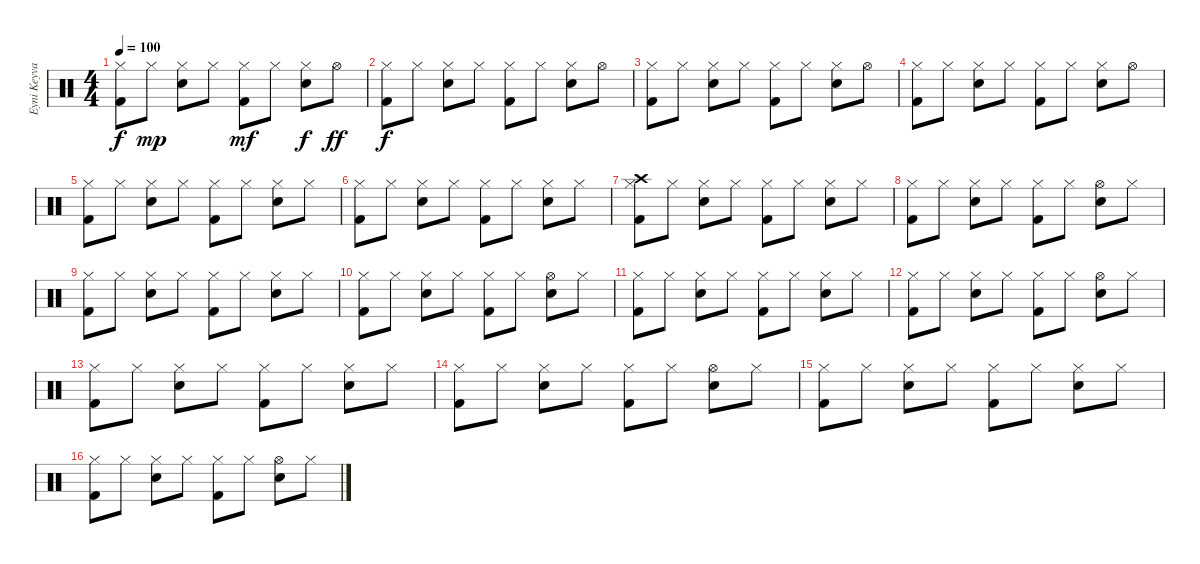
\track ("Eyni Keyvanshokoh" "Eyni Keyva") {instrument percussion}
\staff {score}
\articulation defaults
\ts (4 4)
\tempo 100
\clef neutral
\ks c
("Hi-Hat (closed)" "Kick (hit) 2").8{dy f} "Hi-Hat (closed)".8{dy mp} ("Hi-Hat (closed)" "Electric Snare (hit)").8 "Hi-Hat (closed)".8 ("Hi-Hat (closed)" "Kick (hit) 2").8{dy mf} "Hi-Hat (closed)".8 ("Hi-Hat (closed)" "Electric Snare (hit)").8{dy f} "Hi-Hat (open)".8{dy ff} |
("Hi-Hat (closed)" "Kick (hit) 2").8{dy f} "Hi-Hat (closed)".8 ("Hi-Hat (closed)" "Electric Snare (hit)").8 "Hi-Hat (closed)".8 ("Hi-Hat (closed)" "Kick (hit) 2").8 "Hi-Hat (closed)".8 ("Hi-Hat (closed)" "Electric Snare (hit)").8 "Hi-Hat (open)".8 |
("Hi-Hat (closed)" "Kick (hit) 2").8 "Hi-Hat (closed)".8 ("Hi-Hat (closed)" "Electric Snare (hit)").8 "Hi-Hat (closed)".8 ("Hi-Hat (closed)" "Kick (hit) 2").8 "Hi-Hat (closed)".8 ("Hi-Hat (closed)" "Electric Snare (hit)").8 "Hi-Hat (open)".8 |
("Hi-Hat (closed)" "Kick (hit) 2").8 "Hi-Hat (closed)".8 ("Hi-Hat (closed)" "Electric Snare (hit)").8 "Hi-Hat (closed)".8 ("Hi-Hat (closed)" "Kick (hit) 2").8 "Hi-Hat (closed)".8 ("Hi-Hat (closed)" "Electric Snare (hit)").8 "Hi-Hat (open)".8 |
("Hi-Hat (closed)" "Kick (hit) 2").8 "Hi-Hat (closed)".8 ("Hi-Hat (closed)" "Electric Snare (hit)").8 "Hi-Hat (closed)".8 ("Hi-Hat (closed)" "Kick (hit) 2").8 "Hi-Hat (closed)".8 ("Hi-Hat (closed)" "Electric Snare (hit)").8 "Hi-Hat (closed)".8 |
("Hi-Hat (closed)" "Kick (hit) 2").8 "Hi-Hat (closed)".8 ("Hi-Hat (closed)" "Electric Snare (hit)").8 "Hi-Hat (closed)".8 ("Hi-Hat (closed)" "Kick (hit) 2").8 "Hi-Hat (closed)".8 ("Hi-Hat (closed)" "Electric Snare (hit)").8 "Hi-Hat (closed)".8 |
("Crash high (hit)" "Hi-Hat (closed)" "Kick (hit) 2").8 "Hi-Hat (closed)".8 ("Hi-Hat (closed)" "Electric Snare (hit)").8 "Hi-Hat (closed)".8 ("Hi-Hat (closed)" "Kick (hit) 2").8 "Hi-Hat (closed)".8 ("Hi-Hat (closed)" "Electric Snare (hit)").8 "Hi-Hat (closed)".8 |
("Hi-Hat (closed)" "Kick (hit) 2").8 "Hi-Hat (closed)".8 ("Hi-Hat (closed)" "Electric Snare (hit)").8 "Hi-Hat (closed)".8 ("Hi-Hat (closed)" "Kick (hit) 2").8 "Hi-Hat (closed)".8 ("Hi-Hat (open)" "Electric Snare (hit)").8 "Hi-Hat (closed)".8 |
("Hi-Hat (closed)" "Kick (hit) 2").8 "Hi-Hat (closed)".8 ("Hi-Hat (closed)" "Electric Snare (hit)").8 "Hi-Hat (closed)".8 ("Hi-Hat (closed)" "Kick (hit) 2").8 "Hi-Hat (closed)".8 ("Hi-Hat (closed)" "Electric Snare (hit)").8 "Hi-Hat (closed)".8 |
("Hi-Hat (closed)" "Kick (hit) 2").8 "Hi-Hat (closed)".8 ("Hi-Hat (closed)" "Electric Snare (hit)").8 "Hi-Hat (closed)".8 ("Hi-Hat (closed)" "Kick (hit) 2").8 "Hi-Hat (closed)".8 ("Hi-Hat (open)" "Electric Snare (hit)").8 "Hi-Hat (closed)".8 |
("Hi-Hat (closed)" "Kick (hit) 2").8 "Hi-Hat (closed)".8 ("Hi-Hat (closed)" "Electric Snare (hit)").8 "Hi-Hat (closed)".8 ("Hi-Hat (closed)" "Kick (hit) 2").8 "Hi-Hat (closed)".8 ("Hi-Hat (closed)" "Electric Snare (hit)").8 "Hi-Hat (closed)".8 |
("Hi-Hat (closed)" "Kick (hit) 2").8 "Hi-Hat (closed)".8 ("Hi-Hat (closed)" "Electric Snare (hit)").8 "Hi-Hat (closed)".8 ("Hi-Hat (closed)" "Kick (hit) 2").8 "Hi-Hat (closed)".8 ("Hi-Hat (open)" "Electric Snare (hit)").8 "Hi-Hat (closed)".8 |
("Hi-Hat (closed)" "Kick (hit) 2").8 "Hi-Hat (closed)".8 ("Hi-Hat (closed)" "Electric Snare (hit)").8 "Hi-Hat (closed)".8 ("Hi-Hat (closed)" "Kick (hit) 2").8 "Hi-Hat (closed)".8 ("Hi-Hat (closed)" "Electric Snare (hit)").8 "Hi-Hat (closed)".8 |
("Hi-Hat (closed)" "Kick (hit) 2").8 "Hi-Hat (closed)".8 ("Hi-Hat (closed)" "Electric Snare (hit)").8 "Hi-Hat (closed)".8 ("Hi-Hat (closed)" "Kick (hit) 2").8 "Hi-Hat (closed)".8 ("Hi-Hat (open)" "Electric Snare (hit)").8 "Hi-Hat (closed)".8 |
("Hi-Hat (closed)" "Kick (hit) 2").8 "Hi-Hat (closed)".8 ("Hi-Hat (closed)" "Electric Snare (hit)").8 "Hi-Hat (closed)".8 ("Hi-Hat (closed)" "Kick (hit) 2").8 "Hi-Hat (closed)".8 ("Hi-Hat (closed)" "Electric Snare (hit)").8 "Hi-Hat (closed)".8 |
("Hi-Hat (closed)" "Kick (hit) 2").8 "Hi-Hat (closed)".8 ("Hi-Hat (closed)" "Electric Snare (hit)").8 "Hi-Hat (closed)".8 ("Hi-Hat (closed)" "Kick (hit) 2").8 "Hi-Hat (closed)".8 ("Hi-Hat (open)" "Electric Snare (hit)").8 "Hi-Hat (closed)".8
